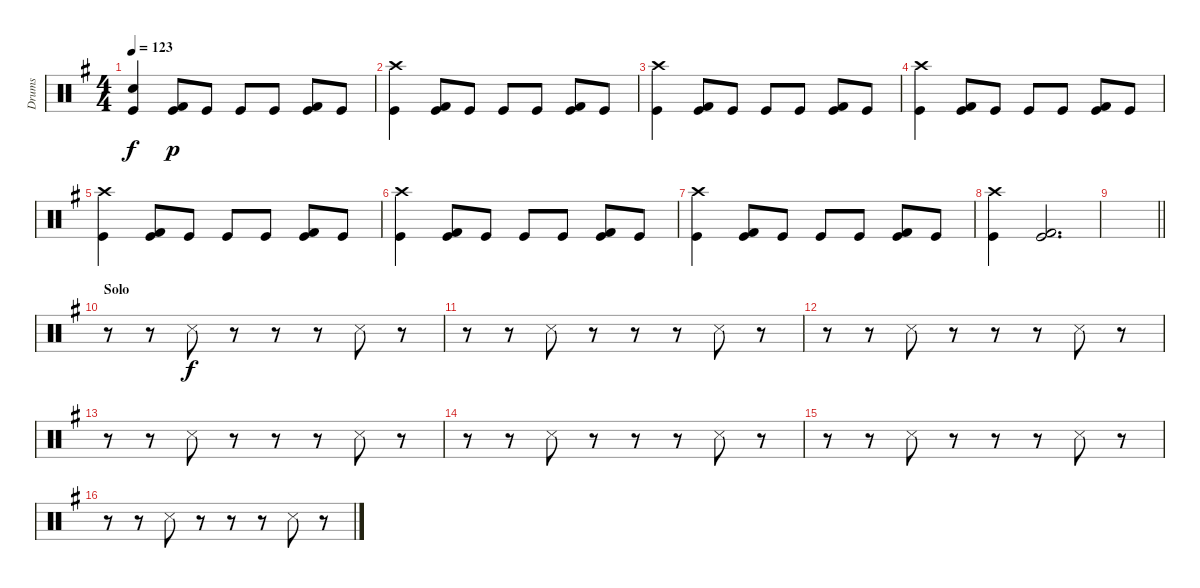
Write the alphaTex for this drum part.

\track ("Drums" "Drums") {instrument percussion}
\staff {score}
\articulation defaults
\ts (4 4)
\tempo 123
\clef neutral
\ks g
("Snare (hit)"{t} "Kick (hit)").4{dy f} ("Kick (hit) 2" "Kick (hit)").8{dy p} "Kick (hit)".8 "Kick (hit)".8 "Kick (hit)".8 ("Kick (hit) 2" "Kick (hit)").8 "Kick (hit)".8 |
("Crash high (hit)" "Kick (hit)").4 ("Kick (hit) 2" "Kick (hit)").8 "Kick (hit)".8 "Kick (hit)".8 "Kick (hit)".8 ("Kick (hit) 2" "Kick (hit)").8 "Kick (hit)".8 |
("Crash high (hit)" "Kick (hit)").4 ("Kick (hit) 2" "Kick (hit)").8 "Kick (hit)".8 "Kick (hit)".8 "Kick (hit)".8 ("Kick (hit) 2" "Kick (hit)").8 "Kick (hit)".8 |
("Crash high (hit)" "Kick (hit)").4 ("Kick (hit) 2" "Kick (hit)").8 "Kick (hit)".8 "Kick (hit)".8 "Kick (hit)".8 ("Kick (hit) 2" "Kick (hit)").8 "Kick (hit)".8 |
("Crash high (hit)" "Kick (hit)").4 ("Kick (hit) 2" "Kick (hit)").8 "Kick (hit)".8 "Kick (hit)".8 "Kick (hit)".8 ("Kick (hit) 2" "Kick (hit)").8 "Kick (hit)".8 |
("Crash high (hit)" "Kick (hit)").4 ("Kick (hit) 2" "Kick (hit)").8 "Kick (hit)".8 "Kick (hit)".8 "Kick (hit)".8 ("Kick (hit) 2" "Kick (hit)").8 "Kick (hit)".8 |
("Crash high (hit)" "Kick (hit)").4 ("Kick (hit) 2" "Kick (hit)").8 "Kick (hit)".8 "Kick (hit)".8 "Kick (hit)".8 ("Kick (hit) 2" "Kick (hit)").8 "Kick (hit)".8 |
("Crash high (hit)" "Kick (hit)").4 ("Kick (hit) 2" "Kick (hit)").2{d} |
\barLineRight lightlight
|
\section ("" "Solo")
r.8 r.8 "Snare (side stick) 3".8{dy f} r.8 r.8 r.8 "Snare (side stick) 3".8 r.8 |
r.8 r.8 "Snare (side stick) 3".8 r.8 r.8 r.8 "Snare (side stick) 3".8 r.8 |
r.8 r.8 "Snare (side stick) 3".8 r.8 r.8 r.8 "Snare (side stick) 3".8 r.8 |
r.8 r.8 "Snare (side stick) 3".8 r.8 r.8 r.8 "Snare (side stick) 3".8 r.8 |
r.8 r.8 "Snare (side stick) 3".8 r.8 r.8 r.8 "Snare (side stick) 3".8 r.8 |
r.8 r.8 "Snare (side stick) 3".8 r.8 r.8 r.8 "Snare (side stick) 3".8 r.8 |
r.8 r.8 "Snare (side stick) 3".8 r.8 r.8 r.8 "Snare (side stick) 3".8 r.8
